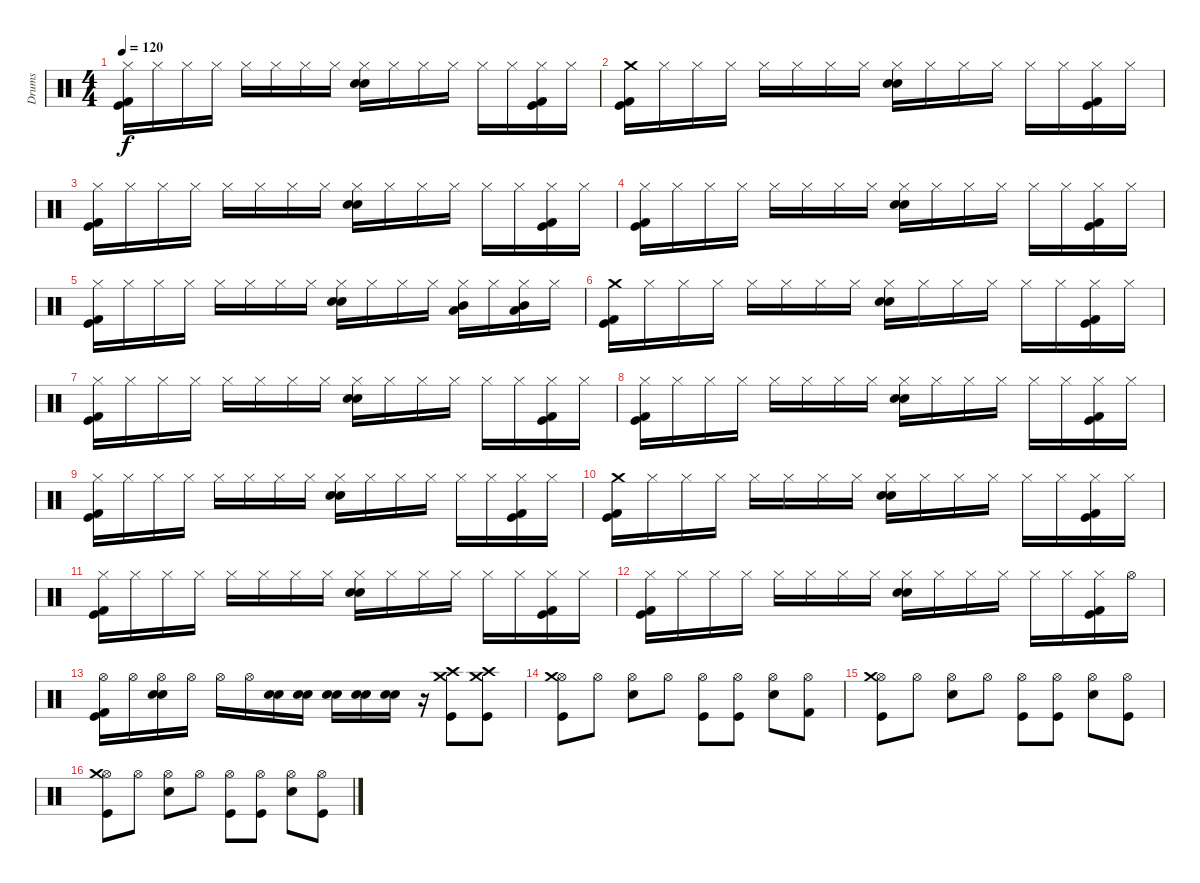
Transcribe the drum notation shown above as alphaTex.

\track ("Drums" "Drums") {instrument percussion}
\staff {score}
\articulation defaults
\ts (4 4)
\tempo 120
\clef neutral
\ks c
("Hi-Hat (closed)" "Kick (hit)" "Kick (hit) 2").16{dy f} "Hi-Hat (closed)".16 "Hi-Hat (closed)".16 "Hi-Hat (closed)".16 "Hi-Hat (closed)".16 "Hi-Hat (closed)".16 "Hi-Hat (closed)".16 "Hi-Hat (closed)".16 ("Hi-Hat (closed)" "Snare (hit) 2" "Electric Snare (hit)").16 "Hi-Hat (closed)".16 "Hi-Hat (closed)".16 "Hi-Hat (closed)".16 "Hi-Hat (closed)".16 "Hi-Hat (closed)".16 ("Hi-Hat (closed)" "Kick (hit)" "Kick (hit) 2").16 "Hi-Hat (closed)".16 |
("Crash medium (hit)" "Kick (hit)" "Kick (hit) 2").16 "Hi-Hat (closed)".16 "Hi-Hat (closed)".16 "Hi-Hat (closed)".16 "Hi-Hat (closed)".16 "Hi-Hat (closed)".16 "Hi-Hat (closed)".16 "Hi-Hat (closed)".16 ("Hi-Hat (closed)" "Snare (hit) 2" "Electric Snare (hit)").16 "Hi-Hat (closed)".16 "Hi-Hat (closed)".16 "Hi-Hat (closed)".16 "Hi-Hat (closed)".16 "Hi-Hat (closed)".16 ("Hi-Hat (closed)" "Kick (hit)" "Kick (hit) 2").16 "Hi-Hat (closed)".16 |
("Hi-Hat (closed)" "Kick (hit)" "Kick (hit) 2").16 "Hi-Hat (closed)".16 "Hi-Hat (closed)".16 "Hi-Hat (closed)".16 "Hi-Hat (closed)".16 "Hi-Hat (closed)".16 "Hi-Hat (closed)".16 "Hi-Hat (closed)".16 ("Hi-Hat (closed)" "Snare (hit) 2" "Electric Snare (hit)").16 "Hi-Hat (closed)".16 "Hi-Hat (closed)".16 "Hi-Hat (closed)".16 "Hi-Hat (closed)".16 "Hi-Hat (closed)".16 ("Hi-Hat (closed)" "Kick (hit)" "Kick (hit) 2").16 "Hi-Hat (closed)".16 |
("Hi-Hat (closed)" "Kick (hit)" "Kick (hit) 2").16 "Hi-Hat (closed)".16 "Hi-Hat (closed)".16 "Hi-Hat (closed)".16 "Hi-Hat (closed)".16 "Hi-Hat (closed)".16 "Hi-Hat (closed)".16 "Hi-Hat (closed)".16 ("Hi-Hat (closed)" "Snare (hit) 2" "Electric Snare (hit)").16 "Hi-Hat (closed)".16 "Hi-Hat (closed)".16 "Hi-Hat (closed)".16 "Hi-Hat (closed)".16 "Hi-Hat (closed)".16 ("Hi-Hat (closed)" "Kick (hit)" "Kick (hit) 2").16 "Hi-Hat (closed)".16 |
("Hi-Hat (closed)" "Kick (hit)" "Kick (hit) 2").16 "Hi-Hat (closed)".16 "Hi-Hat (closed)".16 "Hi-Hat (closed)".16 "Hi-Hat (closed)".16 "Hi-Hat (closed)".16 "Hi-Hat (closed)".16 "Hi-Hat (closed)".16 ("Hi-Hat (closed)" "Snare (hit) 2" "Electric Snare (hit)").16 "Hi-Hat (closed)".16 "Hi-Hat (closed)".16 "Hi-Hat (closed)".16 ("Hi-Hat (closed)" "Low Floor Tom (hit)" "Mid Tom (hit)").16 "Hi-Hat (closed)".16 ("Hi-Hat (closed)" "Low Floor Tom (hit)" "Mid Tom (hit)").16 "Hi-Hat (closed)".16 |
("Crash medium (hit)" "Kick (hit)" "Kick (hit) 2").16 "Hi-Hat (closed)".16 "Hi-Hat (closed)".16 "Hi-Hat (closed)".16 "Hi-Hat (closed)".16 "Hi-Hat (closed)".16 "Hi-Hat (closed)".16 "Hi-Hat (closed)".16 ("Hi-Hat (closed)" "Snare (hit) 2" "Electric Snare (hit)").16 "Hi-Hat (closed)".16 "Hi-Hat (closed)".16 "Hi-Hat (closed)".16 "Hi-Hat (closed)".16 "Hi-Hat (closed)".16 ("Hi-Hat (closed)" "Kick (hit)" "Kick (hit) 2").16 "Hi-Hat (closed)".16 |
("Hi-Hat (closed)" "Kick (hit)" "Kick (hit) 2").16 "Hi-Hat (closed)".16 "Hi-Hat (closed)".16 "Hi-Hat (closed)".16 "Hi-Hat (closed)".16 "Hi-Hat (closed)".16 "Hi-Hat (closed)".16 "Hi-Hat (closed)".16 ("Hi-Hat (closed)" "Snare (hit) 2" "Electric Snare (hit)").16 "Hi-Hat (closed)".16 "Hi-Hat (closed)".16 "Hi-Hat (closed)".16 "Hi-Hat (closed)".16 "Hi-Hat (closed)".16 ("Hi-Hat (closed)" "Kick (hit)" "Kick (hit) 2").16 "Hi-Hat (closed)".16 |
("Hi-Hat (closed)" "Kick (hit)" "Kick (hit) 2").16 "Hi-Hat (closed)".16 "Hi-Hat (closed)".16 "Hi-Hat (closed)".16 "Hi-Hat (closed)".16 "Hi-Hat (closed)".16 "Hi-Hat (closed)".16 "Hi-Hat (closed)".16 ("Hi-Hat (closed)" "Snare (hit) 2" "Electric Snare (hit)").16 "Hi-Hat (closed)".16 "Hi-Hat (closed)".16 "Hi-Hat (closed)".16 "Hi-Hat (closed)".16 "Hi-Hat (closed)".16 ("Hi-Hat (closed)" "Kick (hit)" "Kick (hit) 2").16 "Hi-Hat (closed)".16 |
("Hi-Hat (closed)" "Kick (hit)" "Kick (hit) 2").16 "Hi-Hat (closed)".16 "Hi-Hat (closed)".16 "Hi-Hat (closed)".16 "Hi-Hat (closed)".16 "Hi-Hat (closed)".16 "Hi-Hat (closed)".16 "Hi-Hat (closed)".16 ("Hi-Hat (closed)" "Snare (hit) 2" "Electric Snare (hit)").16 "Hi-Hat (closed)".16 "Hi-Hat (closed)".16 "Hi-Hat (closed)".16 "Hi-Hat (closed)".16 "Hi-Hat (closed)".16 ("Hi-Hat (closed)" "Kick (hit)" "Kick (hit) 2").16 "Hi-Hat (closed)".16 |
("Crash medium (hit)" "Kick (hit)" "Kick (hit) 2").16 "Hi-Hat (closed)".16 "Hi-Hat (closed)".16 "Hi-Hat (closed)".16 "Hi-Hat (closed)".16 "Hi-Hat (closed)".16 "Hi-Hat (closed)".16 "Hi-Hat (closed)".16 ("Hi-Hat (closed)" "Snare (hit) 2" "Electric Snare (hit)").16 "Hi-Hat (closed)".16 "Hi-Hat (closed)".16 "Hi-Hat (closed)".16 "Hi-Hat (closed)".16 "Hi-Hat (closed)".16 ("Hi-Hat (closed)" "Kick (hit)" "Kick (hit) 2").16 "Hi-Hat (closed)".16 |
("Hi-Hat (closed)" "Kick (hit)" "Kick (hit) 2").16 "Hi-Hat (closed)".16 "Hi-Hat (closed)".16 "Hi-Hat (closed)".16 "Hi-Hat (closed)".16 "Hi-Hat (closed)".16 "Hi-Hat (closed)".16 "Hi-Hat (closed)".16 ("Hi-Hat (closed)" "Snare (hit) 2" "Electric Snare (hit)").16 "Hi-Hat (closed)".16 "Hi-Hat (closed)".16 "Hi-Hat (closed)".16 "Hi-Hat (closed)".16 "Hi-Hat (closed)".16 ("Hi-Hat (closed)" "Kick (hit)" "Kick (hit) 2").16 "Hi-Hat (closed)".16 |
("Hi-Hat (closed)" "Kick (hit)" "Kick (hit) 2").16 "Hi-Hat (closed)".16 "Hi-Hat (closed)".16 "Hi-Hat (closed)".16 "Hi-Hat (closed)".16 "Hi-Hat (closed)".16 "Hi-Hat (closed)".16 "Hi-Hat (closed)".16 ("Hi-Hat (closed)" "Snare (hit) 2" "Electric Snare (hit)").16 "Hi-Hat (closed)".16 "Hi-Hat (closed)".16 "Hi-Hat (closed)".16 "Hi-Hat (closed)".16 "Hi-Hat (closed)".16 ("Hi-Hat (closed)" "Kick (hit)" "Kick (hit) 2").16 "Hi-Hat (open)".16 |
("Hi-Hat (open)" "Kick (hit)" "Kick (hit) 2").16 "Hi-Hat (open)".16 ("Hi-Hat (open)" "Electric Snare (hit)" "Snare (hit) 2").16 "Hi-Hat (open)".16 "Hi-Hat (open)".16 "Hi-Hat (open)".16 ("Electric Snare (hit)" "Snare (hit) 2").16 ("Electric Snare (hit)" "Snare (hit) 2").16 ("Electric Snare (hit)" "Snare (hit) 2").16 ("Electric Snare (hit)" "Snare (hit) 2").16 ("Electric Snare (hit)" "Snare (hit) 2").16 r.16 ("Crash medium (hit)" "Crash high (hit)" "Kick (hit)").8 ("Crash high (hit)" "Crash medium (hit)" "Kick (hit)").8 |
("Hi-Hat (open)" "Kick (hit)" "Crash medium (hit)").8 "Hi-Hat (open)".8 ("Hi-Hat (open)" "Snare (hit) 2").8 "Hi-Hat (open)".8 ("Hi-Hat (open)" "Kick (hit)").8 ("Hi-Hat (open)" "Kick (hit)").8 ("Hi-Hat (open)" "Snare (hit) 2").8 ("Hi-Hat (open)" "Kick (hit) 2").8 |
("Hi-Hat (open)" "Kick (hit)" "Crash medium (hit)").8 "Hi-Hat (open)".8 ("Hi-Hat (open)" "Snare (hit) 2").8 "Hi-Hat (open)".8 ("Hi-Hat (open)" "Kick (hit)").8 ("Hi-Hat (open)" "Kick (hit)").8 ("Hi-Hat (open)" "Snare (hit) 2").8 ("Hi-Hat (open)" "Kick (hit)").8 |
("Hi-Hat (open)" "Kick (hit)" "Crash medium (hit)").8 "Hi-Hat (open)".8 ("Hi-Hat (open)" "Snare (hit) 2").8 "Hi-Hat (open)".8 ("Hi-Hat (open)" "Kick (hit)").8 ("Hi-Hat (open)" "Kick (hit)").8 ("Hi-Hat (open)" "Snare (hit) 2").8 ("Hi-Hat (open)" "Kick (hit)").8
